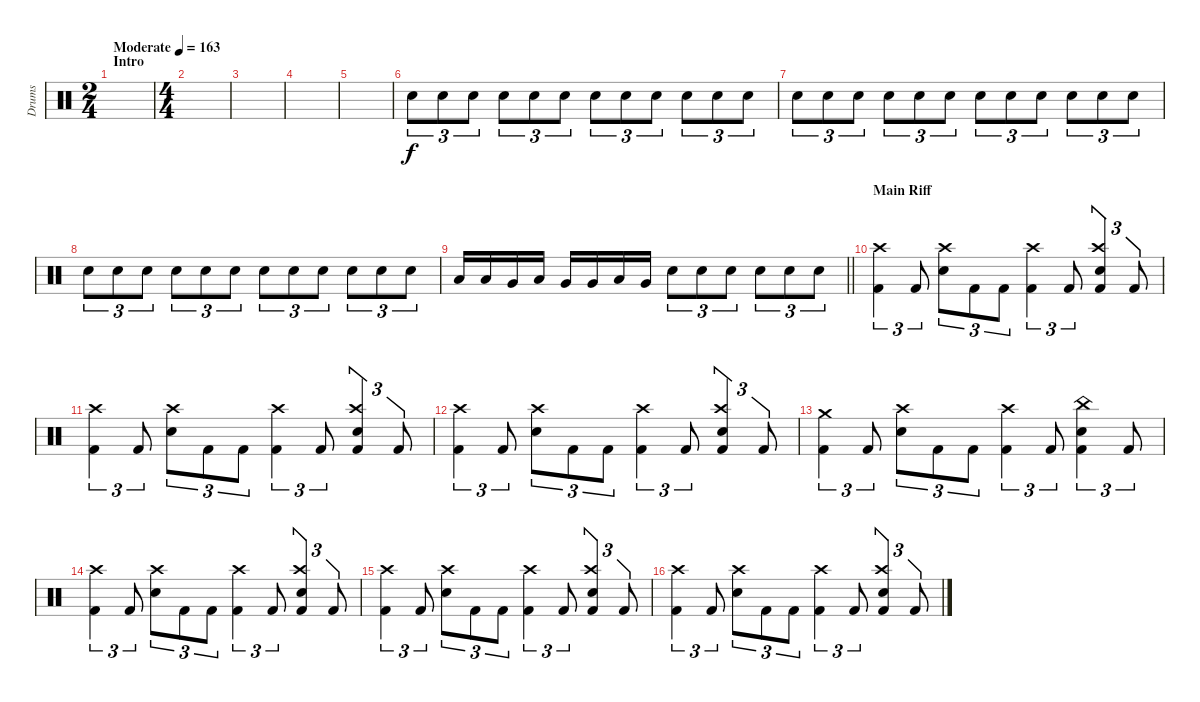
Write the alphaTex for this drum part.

\track ("Drums" "Drums") {instrument percussion}
\staff {score}
\articulation defaults
\ts (2 4)
\section ("" "Intro")
\tempo (163 "Moderate")
\clef neutral
\ks c
|
\ts (4 4)
|
|
|
|
"Electric Snare (hit)".8{tu (3 2)} "Electric Snare (hit)".8{tu (3 2)} "Electric Snare (hit)".8{tu (3 2)} "Electric Snare (hit)".8{tu (3 2)} "Electric Snare (hit)".8{tu (3 2)} "Electric Snare (hit)".8{tu (3 2)} "Electric Snare (hit)".8{tu (3 2)} "Electric Snare (hit)".8{tu (3 2)} "Electric Snare (hit)".8{tu (3 2)} "Electric Snare (hit)".8{tu (3 2)} "Electric Snare (hit)".8{tu (3 2)} "Electric Snare (hit)".8{tu (3 2)} |
"Electric Snare (hit)".8{tu (3 2)} "Electric Snare (hit)".8{tu (3 2)} "Electric Snare (hit)".8{tu (3 2)} "Electric Snare (hit)".8{tu (3 2)} "Electric Snare (hit)".8{tu (3 2)} "Electric Snare (hit)".8{tu (3 2)} "Electric Snare (hit)".8{tu (3 2)} "Electric Snare (hit)".8{tu (3 2)} "Electric Snare (hit)".8{tu (3 2)} "Electric Snare (hit)".8{tu (3 2)} "Electric Snare (hit)".8{tu (3 2)} "Electric Snare (hit)".8{tu (3 2)} |
"Electric Snare (hit)".8{tu (3 2)} "Electric Snare (hit)".8{tu (3 2)} "Electric Snare (hit)".8{tu (3 2)} "Electric Snare (hit)".8{tu (3 2)} "Electric Snare (hit)".8{tu (3 2)} "Electric Snare (hit)".8{tu (3 2)} "Electric Snare (hit)".8{tu (3 2)} "Electric Snare (hit)".8{tu (3 2)} "Electric Snare (hit)".8{tu (3 2)} "Electric Snare (hit)".8{tu (3 2)} "Electric Snare (hit)".8{tu (3 2)} "Electric Snare (hit)".8{tu (3 2)} |
\barLineRight lightlight "Low Tom (hit)".16 "Low Tom (hit)".16 "Very Low Tom (hit)".16 "Low Floor Tom (hit)".16 "Very Low Tom (hit)".16 "Very Low Tom (hit)".16 "Low Floor Tom (hit)".16 "Very Low Tom (hit)".16 "Electric Snare (hit)".8{tu (3 2)} "Electric Snare (hit)".8{tu (3 2)} "Electric Snare (hit)".8{tu (3 2)} "Electric Snare (hit)".8{tu (3 2)} "Electric Snare (hit)".8{tu (3 2)} "Electric Snare (hit)".8{tu (3 2)}
|
\section ("" "Main Riff")
("Crash high (hit)" "Kick (hit) 2").4{tu (3 2)} "Kick (hit) 2".8{tu (3 2)} ("Crash high (hit)" "Electric Snare (hit)").8{tu (3 2)} "Kick (hit) 2".8{tu (3 2)} "Kick (hit) 2".8{tu (3 2)} ("Crash high (hit)" "Kick (hit) 2").4{tu (3 2)} "Kick (hit) 2".8{tu (3 2)} ("Crash high (hit)" "Electric Snare (hit)" "Kick (hit) 2").4{tu (3 2)} "Kick (hit) 2".8{tu (3 2)} |
("Crash high (hit)" "Kick (hit) 2").4{tu (3 2)} "Kick (hit) 2".8{tu (3 2)} ("Crash high (hit)" "Electric Snare (hit)").8{tu (3 2)} "Kick (hit) 2".8{tu (3 2)} "Kick (hit) 2".8{tu (3 2)} ("Crash high (hit)" "Kick (hit) 2").4{tu (3 2)} "Kick (hit) 2".8{tu (3 2)} ("Crash high (hit)" "Electric Snare (hit)" "Kick (hit) 2").4{tu (3 2)} "Kick (hit) 2".8{tu (3 2)} |
("Crash high (hit)" "Kick (hit) 2").4{tu (3 2)} "Kick (hit) 2".8{tu (3 2)} ("Crash high (hit)" "Electric Snare (hit)").8{tu (3 2)} "Kick (hit) 2".8{tu (3 2)} "Kick (hit) 2".8{tu (3 2)} ("Crash high (hit)" "Kick (hit) 2").4{tu (3 2)} "Kick (hit) 2".8{tu (3 2)} ("Crash high (hit)" "Electric Snare (hit)" "Kick (hit) 2").4{tu (3 2)} "Kick (hit) 2".8{tu (3 2)} |
("Crash medium (hit)" "Kick (hit) 2").4{tu (3 2)} "Kick (hit) 2".8{tu (3 2)} ("Crash high (hit)" "Electric Snare (hit)").8{tu (3 2)} "Kick (hit) 2".8{tu (3 2)} "Kick (hit) 2".8{tu (3 2)} ("Crash high (hit)" "Kick (hit) 2").4{tu (3 2)} "Kick (hit) 2".8{tu (3 2)} ("China (hit)" "Electric Snare (hit)" "Kick (hit) 2").4{tu (3 2)} "Kick (hit) 2".8{tu (3 2)} |
("Crash high (hit)" "Kick (hit) 2").4{tu (3 2)} "Kick (hit) 2".8{tu (3 2)} ("Crash high (hit)" "Electric Snare (hit)").8{tu (3 2)} "Kick (hit) 2".8{tu (3 2)} "Kick (hit) 2".8{tu (3 2)} ("Crash high (hit)" "Kick (hit) 2").4{tu (3 2)} "Kick (hit) 2".8{tu (3 2)} ("Crash high (hit)" "Electric Snare (hit)" "Kick (hit) 2").4{tu (3 2)} "Kick (hit) 2".8{tu (3 2)} |
("Crash high (hit)" "Kick (hit) 2").4{tu (3 2)} "Kick (hit) 2".8{tu (3 2)} ("Crash high (hit)" "Electric Snare (hit)").8{tu (3 2)} "Kick (hit) 2".8{tu (3 2)} "Kick (hit) 2".8{tu (3 2)} ("Crash high (hit)" "Kick (hit) 2").4{tu (3 2)} "Kick (hit) 2".8{tu (3 2)} ("Crash high (hit)" "Electric Snare (hit)" "Kick (hit) 2").4{tu (3 2)} "Kick (hit) 2".8{tu (3 2)} |
("Crash high (hit)" "Kick (hit) 2").4{tu (3 2)} "Kick (hit) 2".8{tu (3 2)} ("Crash high (hit)" "Electric Snare (hit)").8{tu (3 2)} "Kick (hit) 2".8{tu (3 2)} "Kick (hit) 2".8{tu (3 2)} ("Crash high (hit)" "Kick (hit) 2").4{tu (3 2)} "Kick (hit) 2".8{tu (3 2)} ("Crash high (hit)" "Electric Snare (hit)" "Kick (hit) 2").4{tu (3 2)} "Kick (hit) 2".8{tu (3 2)}
